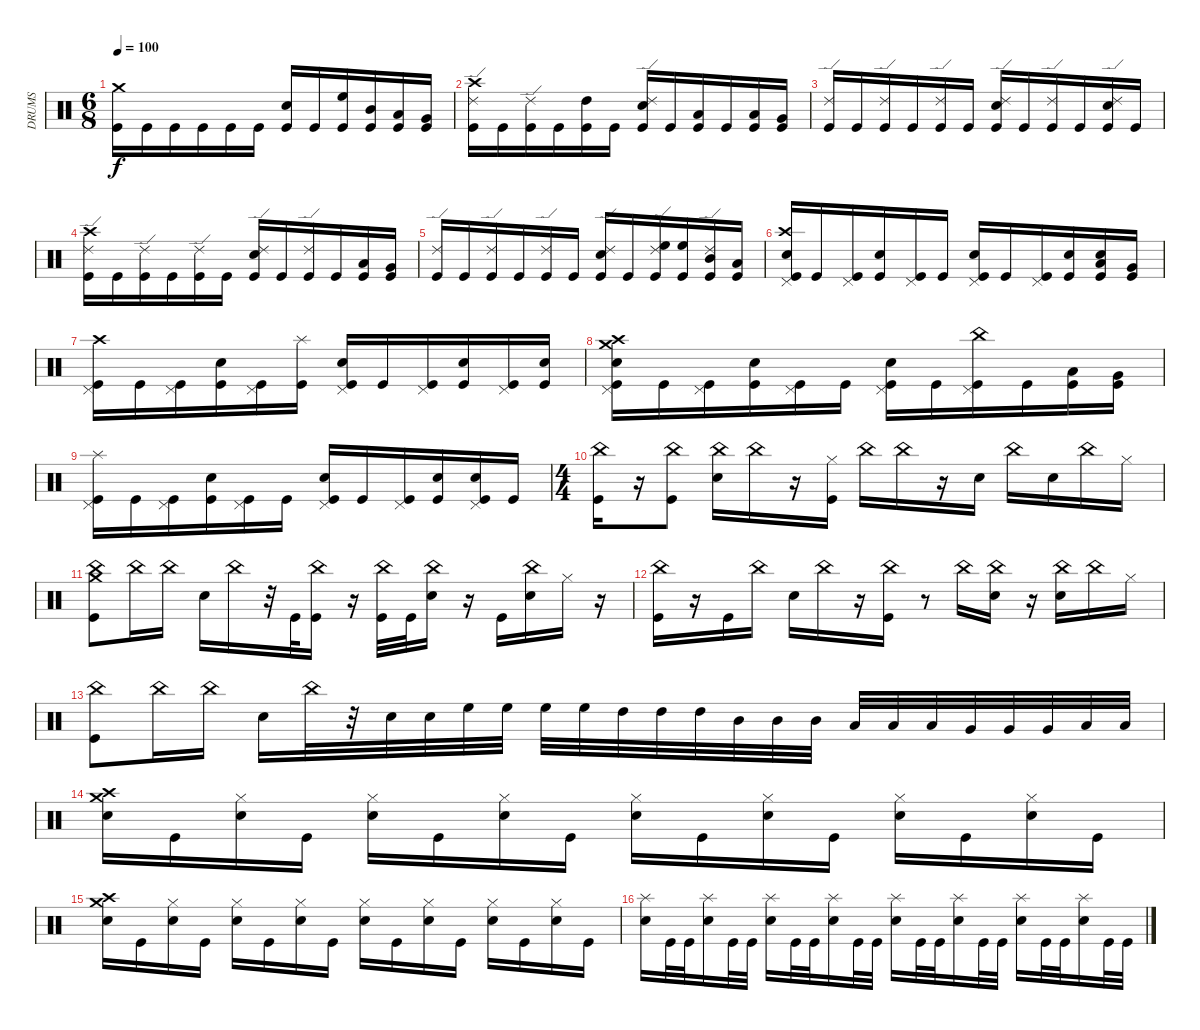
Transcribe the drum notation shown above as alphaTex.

\track ("DRUMS" "DRUMS") {instrument percussion}
\staff {score}
\articulation defaults
\ts (6 8)
\tempo 100
\clef neutral
\ks c
("Crash medium (hit)" "Kick (hit)").16{dy f} "Kick (hit)".16 "Kick (hit)".16 "Kick (hit)".16 "Kick (hit)".16 "Kick (hit)".16 ("Snare (hit) 2" "Kick (hit)").16 "Kick (hit)".16 ("High Floor Tom (hit)" "Kick (hit)").16 ("Mid Tom (hit)" "Kick (hit)").16 ("Low Tom (hit)" "Kick (hit)").16 ("Very Low Tom (hit)" "Kick (hit)").16 |
("Ride (edge) 2" "Crash high (hit)" "Kick (hit)").16 "Kick (hit)".16 ("Ride (edge) 2" "Kick (hit)").16 "Kick (hit)".16 ("High Tom (hit)" "Kick (hit)").16 "Kick (hit)".16 ("Ride (edge) 2" "Snare (hit) 2" "Kick (hit)").16 "Kick (hit)".16 ("Low Tom (hit)" "Kick (hit)").16 "Kick (hit)".16 ("Low Tom (hit)" "Kick (hit)").16 ("Very Low Tom (hit)" "Kick (hit)").16 |
("Ride (edge) 2" "Kick (hit)").16 "Kick (hit)".16 ("Ride (edge) 2" "Kick (hit)").16 "Kick (hit)".16 ("Ride (edge) 2" "Kick (hit)").16 "Kick (hit)".16 ("Ride (edge) 2" "Snare (hit) 2" "Kick (hit)").16 "Kick (hit)".16 ("Ride (edge) 2" "Kick (hit)").16 "Kick (hit)".16 ("Snare (hit) 2" "Ride (edge) 2" "Kick (hit)").16 "Kick (hit)".16 |
("Ride (edge) 2" "Crash high (hit)" "Kick (hit)").16 "Kick (hit)".16 ("Ride (edge) 2" "Kick (hit)").16 "Kick (hit)".16 ("Ride (edge) 2" "Kick (hit)").16 "Kick (hit)".16 ("Ride (edge) 2" "Snare (hit) 2" "Kick (hit)").16 "Kick (hit)".16 ("Ride (edge) 2" "Kick (hit)").16 "Kick (hit)".16 ("Low Tom (hit)" "Kick (hit)").16 ("Very Low Tom (hit)" "Kick (hit)").16 |
("Ride (edge) 2" "Kick (hit)").16 "Kick (hit)".16 ("Ride (edge) 2" "Kick (hit)").16 "Kick (hit)".16 ("Ride (edge) 2" "Kick (hit)").16 "Kick (hit)".16 ("Ride (edge) 2" "Snare (hit) 2" "Kick (hit)").16 "Kick (hit)".16 ("High Floor Tom (hit)" "Ride (edge) 2" "Kick (hit)").16 ("High Floor Tom (hit)" "Kick (hit)").16 ("Mid Tom (hit)" "Ride (edge) 2" "Kick (hit)").16 ("Low Tom (hit)" "Kick (hit)").16 |
("Snare (hit) 2" "Crash high (hit)" "Kick (hit)" "Pedal Hi-Hat (hit)").16 "Kick (hit)".16 ("Kick (hit)" "Pedal Hi-Hat (hit)").16 ("Snare (hit) 2" "Kick (hit)").16 ("Kick (hit)" "Pedal Hi-Hat (hit)").16 "Kick (hit)".16 ("Snare (hit) 2" "Kick (hit)" "Pedal Hi-Hat (hit)").16 "Kick (hit)".16 ("Kick (hit)" "Pedal Hi-Hat (hit)").16 ("Snare (hit) 2" "Kick (hit)").16 ("Snare (hit) 2" "Low Tom (hit)" "Kick (hit)").16 ("Very Low Tom (hit)" "Kick (hit)").16 |
("Crash high (hit)" "Kick (hit)" "Pedal Hi-Hat (hit)").16 "Kick (hit)".16 ("Kick (hit)" "Pedal Hi-Hat (hit)").16 ("Snare (hit) 2" "Kick (hit)").16 ("Pedal Hi-Hat (hit)" "Kick (hit)").16 ("Splash (hit)" "Kick (hit)").16 ("Snare (hit) 2" "Pedal Hi-Hat (hit)" "Kick (hit)").16 "Kick (hit)".16 ("Kick (hit)" "Pedal Hi-Hat (hit)").16 ("Snare (hit) 2" "Kick (hit)").16 ("Kick (hit)" "Pedal Hi-Hat (hit)").16 ("Snare (hit) 2" "Kick (hit)").16 |
("Crash medium (hit)" "Snare (hit) 2" "Crash high (hit)" "Kick (hit)" "Pedal Hi-Hat (hit)").16 "Kick (hit)".16 ("Kick (hit)" "Pedal Hi-Hat (hit)").16 ("Snare (hit) 2" "Kick (hit)").16 ("Pedal Hi-Hat (hit)" "Kick (hit)").16 "Kick (hit)".16 ("Snare (hit) 2" "Pedal Hi-Hat (hit)" "Kick (hit)").16 "Kick (hit)".16 ("China (hit)" "Kick (hit)" "Pedal Hi-Hat (hit)").16 "Kick (hit)".16 ("Low Tom (hit)" "Kick (hit)").16 ("Very Low Tom (hit)" "Kick (hit)").16 |
("Splash (hit)" "Kick (hit)" "Pedal Hi-Hat (hit)").16 "Kick (hit)".16 ("Pedal Hi-Hat (hit)" "Kick (hit)").16 ("Snare (hit) 2" "Kick (hit)").16 ("Pedal Hi-Hat (hit)" "Kick (hit)").16 "Kick (hit)".16 ("Snare (hit) 2" "Pedal Hi-Hat (hit)" "Kick (hit)").16 "Kick (hit)".16 ("Pedal Hi-Hat (hit)" "Kick (hit)").16 ("Snare (hit) 2" "Kick (hit)").16 ("Snare (hit) 2" "Kick (hit)" "Pedal Hi-Hat (hit)").16 "Kick (hit)".16 |
\ts (4 4)
("China (hit)" "Kick (hit)").16 r.16 ("China (hit)" "Kick (hit)").8 ("China (hit)" "Snare (hit) 2").16 "China (hit)".16 r.16 ("Hi-Hat (closed)" "Kick (hit)").16 "China (hit)".16 "China (hit)".16 r.16 "Snare (hit) 2".16 "China (hit)".16 "Snare (hit) 2".16 "China (hit)".16 "Hi-Hat (closed)".16 |
("China (hit)" "Crash medium (hit)" "Kick (hit)").8 "China (hit)".16 "China (hit)".16 "Snare (hit) 2".16 "China (hit)".16 r.32 "Kick (hit)".32 ("Kick (hit)" "China (hit)").16 r.16 ("China (hit)" "Kick (hit)").32 "Kick (hit)".32 ("China (hit)" "Snare (hit) 2").16 r.16 "Kick (hit)".16 ("Snare (hit) 2" "China (hit)").16 "Hi-Hat (closed)".16 r.16 |
("China (hit)" "Kick (hit)").16 r.16 "Kick (hit)".16 "China (hit)".16 "Snare (hit) 2".16 "China (hit)".16 r.16 ("China (hit)" "Kick (hit)").16 r.8 "China (hit)".16 ("China (hit)" "Snare (hit) 2").16 r.16 ("China (hit)" "Snare (hit) 2").16 "China (hit)".16 "Hi-Hat (closed)".16 |
("China (hit)" "Kick (hit)").8 "China (hit)".16 "China (hit)".16 "Snare (hit) 2".16 "China (hit)".32 r.32 "Snare (hit) 2".32 "Snare (hit) 2".32 "High Floor Tom (hit)".32 "High Floor Tom (hit)".32 "High Floor Tom (hit)".32 "High Floor Tom (hit)".32 "High Tom (hit)".32 "High Tom (hit)".32 "High Tom (hit)".32 "Mid Tom (hit)".32 "Mid Tom (hit)".32 "Mid Tom (hit)".32 "Low Tom (hit)".32 "Low Tom (hit)".32 "Low Tom (hit)".32 "Very Low Tom (hit)".32 "Very Low Tom (hit)".32 "Very Low Tom (hit)".32 "Low Floor Tom (hit)".32 "Low Floor Tom (hit)".32 |
("Crash medium (hit)" "Crash high (hit)" "Snare (hit) 2").16 "Kick (hit)".16 ("Hi-Hat (closed)" "Snare (hit) 2").16 "Kick (hit)".16 ("Hi-Hat (closed)" "Snare (hit) 2").16 "Kick (hit)".16 ("Hi-Hat (closed)" "Snare (hit) 2").16 "Kick (hit)".16 ("Hi-Hat (closed)" "Snare (hit) 2").16 "Kick (hit)".16 ("Hi-Hat (closed)" "Snare (hit) 2").16 "Kick (hit)".16 ("Hi-Hat (closed)" "Snare (hit) 2").16 "Kick (hit)".16 ("Hi-Hat (closed)" "Snare (hit) 2").16 "Kick (hit)".16 |
("Crash medium (hit)" "Crash high (hit)" "Snare (hit) 2").16 "Kick (hit)".16 ("Hi-Hat (closed)" "Snare (hit) 2").16 "Kick (hit)".16 ("Hi-Hat (closed)" "Snare (hit) 2").16 "Kick (hit)".16 ("Hi-Hat (closed)" "Snare (hit) 2").16 "Kick (hit)".16 ("Hi-Hat (closed)" "Snare (hit) 2").16 "Kick (hit)".16 ("Hi-Hat (closed)" "Snare (hit) 2").16 "Kick (hit)".16 ("Hi-Hat (closed)" "Snare (hit) 2").16 "Kick (hit)".16 ("Hi-Hat (closed)" "Snare (hit) 2").16 "Kick (hit)".16 |
("Splash (hit)" "Snare (hit) 2").16 "Kick (hit)".32 "Kick (hit)".32 ("Splash (hit)" "Snare (hit) 2").16 "Kick (hit)".32 "Kick (hit)".32 ("Splash (hit)" "Snare (hit) 2").16 "Kick (hit)".32 "Kick (hit)".32 ("Splash (hit)" "Snare (hit) 2").16 "Kick (hit)".32 "Kick (hit)".32 ("Splash (hit)" "Snare (hit) 2").16 "Kick (hit)".32 "Kick (hit)".32 ("Splash (hit)" "Snare (hit) 2").16 "Kick (hit)".32 "Kick (hit)".32 ("Splash (hit)" "Snare (hit) 2").16 "Kick (hit)".32 "Kick (hit)".32 ("Splash (hit)" "Snare (hit) 2").16 "Kick (hit)".32 "Kick (hit)".32
